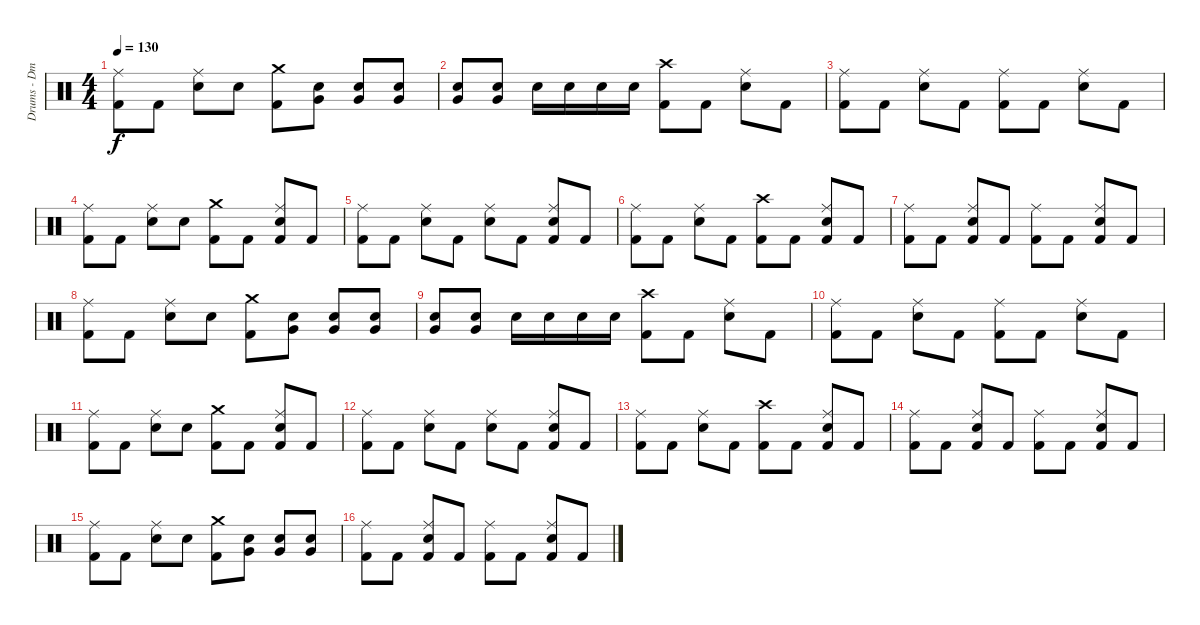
\track ("Drums - Dmitriy Krivenkov" "Drums - Dm") {instrument percussion}
\staff {score}
\articulation defaults
\ts (4 4)
\tempo 130
\clef neutral
\ks c
("Kick (hit) 2" "Ride (middle)").8{dy f} "Kick (hit) 2".8 ("Ride (middle)" "Electric Snare (hit)").8 "Electric Snare (hit)".8 ("Kick (hit) 2" "Crash medium (hit)").8 ("Electric Snare (hit)" "Very Low Tom (hit)").8 ("Very Low Tom (hit)" "Electric Snare (hit)").8 ("Electric Snare (hit)" "Very Low Tom (hit)").8 |
("Electric Snare (hit)" "Very Low Tom (hit)").8 ("Very Low Tom (hit)" "Electric Snare (hit)").8 "Electric Snare (hit)".16 "Electric Snare (hit)".16 "Electric Snare (hit)".16 "Electric Snare (hit)".16 ("Crash high (hit)" "Kick (hit) 2").8 "Kick (hit) 2".8 ("Ride (middle)" "Electric Snare (hit)").8 "Kick (hit) 2".8 |
("Ride (middle)" "Kick (hit) 2").8 "Kick (hit) 2".8 ("Ride (middle)" "Electric Snare (hit)").8 "Kick (hit) 2".8 ("Kick (hit) 2" "Ride (middle)").8 "Kick (hit) 2".8 ("Ride (middle)" "Electric Snare (hit)").8 "Kick (hit) 2".8 |
("Kick (hit) 2" "Ride (middle)").8 "Kick (hit) 2".8 ("Electric Snare (hit)" "Ride (middle)").8 "Electric Snare (hit)".8 ("Crash medium (hit)" "Kick (hit) 2").8 "Kick (hit) 2".8 ("Ride (middle)" "Kick (hit) 2" "Electric Snare (hit)").8 "Kick (hit) 2".8 |
("Kick (hit) 2" "Ride (middle)").8 "Kick (hit) 2".8 ("Ride (middle)" "Electric Snare (hit)").8 "Kick (hit) 2".8 ("Ride (middle)" "Electric Snare (hit)").8 "Kick (hit) 2".8 ("Ride (middle)" "Electric Snare (hit)" "Kick (hit) 2").8 "Kick (hit) 2".8 |
("Ride (middle)" "Kick (hit) 2").8 "Kick (hit) 2".8 ("Ride (middle)" "Electric Snare (hit)").8 "Kick (hit) 2".8 ("Kick (hit) 2" "Crash high (hit)").8 "Kick (hit) 2".8 ("Ride (middle)" "Kick (hit) 2" "Electric Snare (hit)").8 "Kick (hit) 2".8 |
("Ride (middle)" "Kick (hit) 2").8 "Kick (hit) 2".8 ("Kick (hit) 2" "Electric Snare (hit)" "Ride (middle)").8 "Kick (hit) 2".8 ("Ride (middle)" "Kick (hit) 2").8 "Kick (hit) 2".8 ("Kick (hit) 2" "Electric Snare (hit)" "Ride (middle)").8 "Kick (hit) 2".8 |
("Kick (hit) 2" "Ride (middle)").8 "Kick (hit) 2".8 ("Ride (middle)" "Electric Snare (hit)").8 "Electric Snare (hit)".8 ("Kick (hit) 2" "Crash medium (hit)").8 ("Electric Snare (hit)" "Very Low Tom (hit)").8 ("Very Low Tom (hit)" "Electric Snare (hit)").8 ("Electric Snare (hit)" "Very Low Tom (hit)").8 |
("Electric Snare (hit)" "Very Low Tom (hit)").8 ("Very Low Tom (hit)" "Electric Snare (hit)").8 "Electric Snare (hit)".16 "Electric Snare (hit)".16 "Electric Snare (hit)".16 "Electric Snare (hit)".16 ("Crash high (hit)" "Kick (hit) 2").8 "Kick (hit) 2".8 ("Ride (middle)" "Electric Snare (hit)").8 "Kick (hit) 2".8 |
("Ride (middle)" "Kick (hit) 2").8 "Kick (hit) 2".8 ("Ride (middle)" "Electric Snare (hit)").8 "Kick (hit) 2".8 ("Kick (hit) 2" "Ride (middle)").8 "Kick (hit) 2".8 ("Ride (middle)" "Electric Snare (hit)").8 "Kick (hit) 2".8 |
("Kick (hit) 2" "Ride (middle)").8 "Kick (hit) 2".8 ("Electric Snare (hit)" "Ride (middle)").8 "Electric Snare (hit)".8 ("Crash medium (hit)" "Kick (hit) 2").8 "Kick (hit) 2".8 ("Ride (middle)" "Kick (hit) 2" "Electric Snare (hit)").8 "Kick (hit) 2".8 |
("Kick (hit) 2" "Ride (middle)").8 "Kick (hit) 2".8 ("Ride (middle)" "Electric Snare (hit)").8 "Kick (hit) 2".8 ("Ride (middle)" "Electric Snare (hit)").8 "Kick (hit) 2".8 ("Ride (middle)" "Electric Snare (hit)" "Kick (hit) 2").8 "Kick (hit) 2".8 |
("Ride (middle)" "Kick (hit) 2").8 "Kick (hit) 2".8 ("Ride (middle)" "Electric Snare (hit)").8 "Kick (hit) 2".8 ("Kick (hit) 2" "Crash high (hit)").8 "Kick (hit) 2".8 ("Ride (middle)" "Kick (hit) 2" "Electric Snare (hit)").8 "Kick (hit) 2".8 |
("Ride (middle)" "Kick (hit) 2").8 "Kick (hit) 2".8 ("Kick (hit) 2" "Electric Snare (hit)" "Ride (middle)").8 "Kick (hit) 2".8 ("Ride (middle)" "Kick (hit) 2").8 "Kick (hit) 2".8 ("Kick (hit) 2" "Electric Snare (hit)" "Ride (middle)").8 "Kick (hit) 2".8 |
("Kick (hit) 2" "Ride (middle)").8 "Kick (hit) 2".8 ("Ride (middle)" "Electric Snare (hit)").8 "Electric Snare (hit)".8 ("Kick (hit) 2" "Crash medium (hit)").8 ("Electric Snare (hit)" "Very Low Tom (hit)").8 ("Very Low Tom (hit)" "Electric Snare (hit)").8 ("Electric Snare (hit)" "Very Low Tom (hit)").8 |
("Ride (middle)" "Kick (hit) 2").8 "Kick (hit) 2".8 ("Kick (hit) 2" "Electric Snare (hit)" "Ride (middle)").8 "Kick (hit) 2".8 ("Ride (middle)" "Kick (hit) 2").8 "Kick (hit) 2".8 ("Kick (hit) 2" "Electric Snare (hit)" "Ride (middle)").8 "Kick (hit) 2".8
